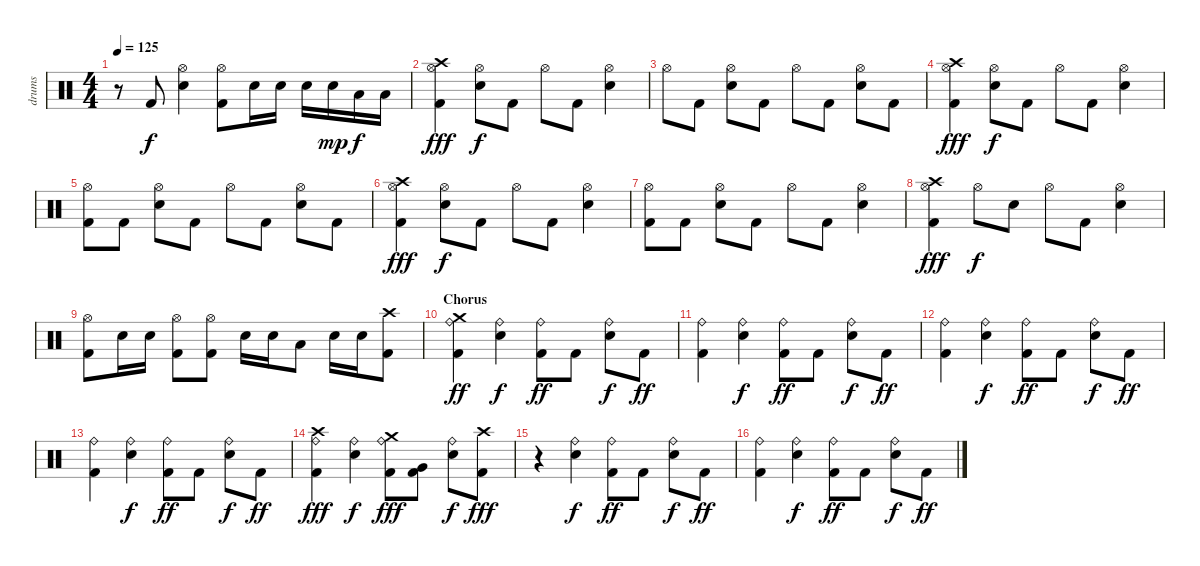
\track ("drums" "drums") {instrument percussion}
\staff {score}
\articulation defaults
\ts (4 4)
\tempo 125
\clef neutral
\ks c
r.8{dy f} "Kick (hit) 2".8 ("Hi-Hat (open)" "Snare (hit) 2").4 ("Kick (hit) 2" "Hi-Hat (open)").8 "Snare (hit) 2".16 "Snare (hit) 2".16 "Snare (hit) 2".16 "Snare (hit) 2".16{dy mp} "Low Tom (hit)".16{dy f} "Low Tom (hit)".16 |
("Kick (hit) 2" "Crash high (hit)" "Hi-Hat (open)").4{dy fff} ("Hi-Hat (open)" "Snare (hit) 2").8{dy f} "Kick (hit) 2".8 "Hi-Hat (open)".8 "Kick (hit) 2".8 ("Hi-Hat (open)" "Snare (hit) 2").4 |
"Hi-Hat (open)".8 "Kick (hit) 2".8 ("Hi-Hat (open)" "Snare (hit) 2").8 "Kick (hit) 2".8 "Hi-Hat (open)".8 "Kick (hit) 2".8 ("Hi-Hat (open)" "Snare (hit) 2").8 "Kick (hit) 2".8 |
("Kick (hit) 2" "Crash high (hit)" "Hi-Hat (open)").4{dy fff} ("Hi-Hat (open)" "Snare (hit) 2").8{dy f} "Kick (hit) 2".8 "Hi-Hat (open)".8 "Kick (hit) 2".8 ("Hi-Hat (open)" "Snare (hit) 2").4 |
("Kick (hit) 2" "Hi-Hat (open)").8 "Kick (hit) 2".8 ("Hi-Hat (open)" "Snare (hit) 2").8 "Kick (hit) 2".8 "Hi-Hat (open)".8 "Kick (hit) 2".8 ("Hi-Hat (open)" "Snare (hit) 2").8 "Kick (hit) 2".8 |
("Kick (hit) 2" "Crash high (hit)" "Hi-Hat (open)").4{dy fff} ("Hi-Hat (open)" "Snare (hit) 2").8{dy f} "Kick (hit) 2".8 "Hi-Hat (open)".8 "Kick (hit) 2".8 ("Hi-Hat (open)" "Snare (hit) 2").4 |
("Kick (hit) 2" "Hi-Hat (open)").8 "Kick (hit) 2".8 ("Hi-Hat (open)" "Snare (hit) 2").8 "Kick (hit) 2".8 "Hi-Hat (open)".8 "Kick (hit) 2".8 ("Hi-Hat (open)" "Snare (hit) 2").4 |
("Kick (hit) 2" "Crash high (hit)" "Hi-Hat (open)").4{dy fff} "Hi-Hat (open)".8{dy f} "Snare (hit) 2".8 "Hi-Hat (open)".8 "Kick (hit) 2".8 ("Hi-Hat (open)" "Snare (hit) 2").4 |
("Kick (hit) 2" "Hi-Hat (open)").8 "Snare (hit) 2".16 "Snare (hit) 2".16 ("Kick (hit) 2" "Hi-Hat (open)").8 ("Kick (hit) 2" "Hi-Hat (open)").8 "Snare (hit) 2".16 "Snare (hit) 2".16 "Low Tom (hit)".8 "Snare (hit) 2".16 "Snare (hit) 2".16 ("Kick (hit) 2" "Crash high (hit)").8 |
\section ("" "Chorus")
("Kick (hit) 2" "Crash medium (hit)" "Ride (bell)").4{dy ff} ("Ride (bell)" "Snare (hit) 2").4{dy f} ("Kick (hit) 2" "Ride (bell)").8{dy ff} "Kick (hit) 2".8 ("Ride (bell)" "Snare (hit) 2").8{dy f} "Kick (hit) 2".8{dy ff} |
("Kick (hit) 2" "Ride (bell)").4 ("Ride (bell)" "Snare (hit) 2").4{dy f} ("Kick (hit) 2" "Ride (bell)").8{dy ff} "Kick (hit) 2".8 ("Ride (bell)" "Snare (hit) 2").8{dy f} "Kick (hit) 2".8{dy ff} |
("Kick (hit) 2" "Ride (bell)").4 ("Ride (bell)" "Snare (hit) 2").4{dy f} ("Kick (hit) 2" "Ride (bell)").8{dy ff} "Kick (hit) 2".8 ("Ride (bell)" "Snare (hit) 2").8{dy f} "Kick (hit) 2".8{dy ff} |
("Kick (hit) 2" "Ride (bell)").4 ("Ride (bell)" "Snare (hit) 2").4{dy f} ("Kick (hit) 2" "Ride (bell)").8{dy ff} "Kick (hit) 2".8 ("Ride (bell)" "Snare (hit) 2").8{dy f} "Kick (hit) 2".8{dy ff} |
("Kick (hit) 2" "Crash high (hit)" "Ride (bell)").4{dy fff} ("Ride (bell)" "Snare (hit) 2").4{dy f} ("Kick (hit) 2" "Crash medium (hit)" "Ride (bell)").8{dy fff} ("Kick (hit) 2" "Very Low Tom (hit)").8 ("Ride (bell)" "Snare (hit) 2").8{dy f} ("Kick (hit) 2" "Crash high (hit)").8{dy fff} |
r.4 ("Ride (bell)" "Snare (hit) 2").4{dy f} ("Kick (hit) 2" "Ride (bell)").8{dy ff} "Kick (hit) 2".8 ("Ride (bell)" "Snare (hit) 2").8{dy f} "Kick (hit) 2".8{dy ff} |
("Kick (hit) 2" "Ride (bell)").4 ("Ride (bell)" "Snare (hit) 2").4{dy f} ("Kick (hit) 2" "Ride (bell)").8{dy ff} "Kick (hit) 2".8 ("Ride (bell)" "Snare (hit) 2").8{dy f} "Kick (hit) 2".8{dy ff}
